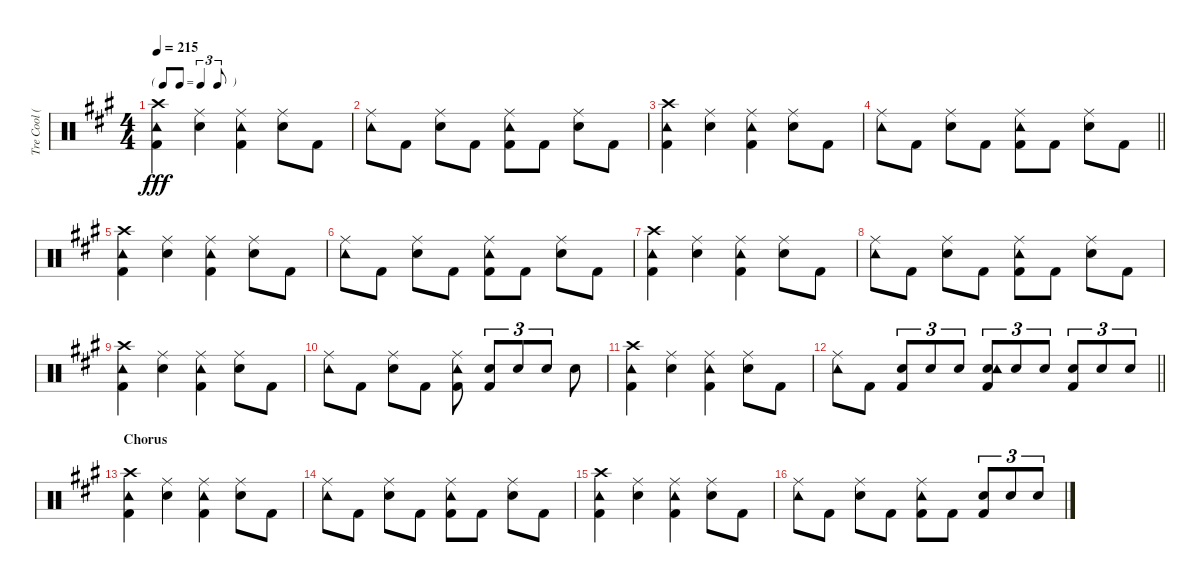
\track ("Tre Cool (Drums)" "Tre Cool (") {instrument percussion}
\staff {score}
\articulation defaults
\ts (4 4)
\tf triplet8th
\tempo 215
\clef neutral
\ks a
("Crash high (hit)" "Kick (hit) 2" "Tambourine (hit)").4{dy fff} ("Ride (middle)" "Electric Snare (hit)").4 ("Ride (middle)" "Kick (hit) 2" "Tambourine (hit)").4 ("Ride (middle)" "Electric Snare (hit)").8 "Kick (hit) 2".8 |
("Ride (middle)" "Tambourine (hit)").8 "Kick (hit) 2".8 ("Electric Snare (hit)" "Ride (middle)").8 "Kick (hit) 2".8 ("Kick (hit) 2" "Ride (middle)" "Tambourine (hit)").8 "Kick (hit) 2".8 ("Electric Snare (hit)" "Ride (middle)").8 "Kick (hit) 2".8 |
("Crash high (hit)" "Kick (hit) 2" "Tambourine (hit)").4 ("Ride (middle)" "Electric Snare (hit)").4 ("Ride (middle)" "Kick (hit) 2" "Tambourine (hit)").4 ("Ride (middle)" "Electric Snare (hit)").8 "Kick (hit) 2".8 |
\barLineRight lightlight
("Ride (middle)" "Tambourine (hit)").8 "Kick (hit) 2".8 ("Electric Snare (hit)" "Ride (middle)").8 "Kick (hit) 2".8 ("Kick (hit) 2" "Ride (middle)" "Tambourine (hit)").8 "Kick (hit) 2".8 ("Electric Snare (hit)" "Ride (middle)").8 "Kick (hit) 2".8 |
("Crash high (hit)" "Kick (hit) 2" "Tambourine (hit)").4 ("Ride (middle)" "Electric Snare (hit)").4 ("Ride (middle)" "Kick (hit) 2" "Tambourine (hit)").4 ("Ride (middle)" "Electric Snare (hit)").8 "Kick (hit) 2".8 |
("Ride (middle)" "Tambourine (hit)").8 "Kick (hit) 2".8 ("Electric Snare (hit)" "Ride (middle)").8 "Kick (hit) 2".8 ("Kick (hit) 2" "Ride (middle)" "Tambourine (hit)").8 "Kick (hit) 2".8 ("Electric Snare (hit)" "Ride (middle)").8 "Kick (hit) 2".8 |
("Crash high (hit)" "Kick (hit) 2" "Tambourine (hit)").4 ("Ride (middle)" "Electric Snare (hit)").4 ("Ride (middle)" "Kick (hit) 2" "Tambourine (hit)").4 ("Ride (middle)" "Electric Snare (hit)").8 "Kick (hit) 2".8 |
("Ride (middle)" "Tambourine (hit)").8 "Kick (hit) 2".8 ("Electric Snare (hit)" "Ride (middle)").8 "Kick (hit) 2".8 ("Kick (hit) 2" "Ride (middle)" "Tambourine (hit)").8 "Kick (hit) 2".8 ("Electric Snare (hit)" "Ride (middle)").8 "Kick (hit) 2".8 |
("Crash high (hit)" "Kick (hit) 2" "Tambourine (hit)").4 ("Ride (middle)" "Electric Snare (hit)").4 ("Ride (middle)" "Kick (hit) 2" "Tambourine (hit)").4 ("Ride (middle)" "Electric Snare (hit)").8 "Kick (hit) 2".8 |
("Ride (middle)" "Tambourine (hit)").8 "Kick (hit) 2".8 ("Ride (middle)" "Electric Snare (hit)").8 "Kick (hit) 2".8 ("Ride (middle)" "Kick (hit) 2" "Tambourine (hit)").8 ("Electric Snare (hit)" "Kick (hit) 2").8{tu (3 2)} "Electric Snare (hit)".8{tu (3 2)} "Electric Snare (hit)".8{tu (3 2)} "Electric Snare (hit)".8 |
("Crash high (hit)" "Kick (hit) 2" "Tambourine (hit)").4 ("Ride (middle)" "Electric Snare (hit)").4 ("Ride (middle)" "Kick (hit) 2" "Tambourine (hit)").4 ("Ride (middle)" "Electric Snare (hit)").8 "Kick (hit) 2".8 |
\barLineRight lightlight
("Ride (middle)" "Tambourine (hit)").8 "Kick (hit) 2".8 ("Electric Snare (hit)" "Kick (hit) 2").8{tu (3 2)} "Electric Snare (hit)".8{tu (3 2)} "Electric Snare (hit)".8{tu (3 2)} ("Electric Snare (hit)" "Kick (hit) 2" "Tambourine (hit)").8{tu (3 2)} "Electric Snare (hit)".8{tu (3 2)} "Electric Snare (hit)".8{tu (3 2)} ("Electric Snare (hit)" "Kick (hit) 2").8{tu (3 2)} "Electric Snare (hit)".8{tu (3 2)} "Electric Snare (hit)".8{tu (3 2)} |
\section ("" "Chorus")
("Crash high (hit)" "Kick (hit) 2" "Tambourine (hit)").4 ("Ride (middle)" "Electric Snare (hit)").4 ("Ride (middle)" "Kick (hit) 2" "Tambourine (hit)").4 ("Ride (middle)" "Electric Snare (hit)").8 "Kick (hit) 2".8 |
("Ride (middle)" "Tambourine (hit)").8 "Kick (hit) 2".8 ("Ride (middle)" "Electric Snare (hit)").8 "Kick (hit) 2".8 ("Ride (middle)" "Kick (hit) 2" "Tambourine (hit)").8 "Kick (hit) 2".8 ("Ride (middle)" "Electric Snare (hit)").8 "Kick (hit) 2".8 |
("Crash high (hit)" "Kick (hit) 2" "Tambourine (hit)").4 ("Ride (middle)" "Electric Snare (hit)").4 ("Ride (middle)" "Kick (hit) 2" "Tambourine (hit)").4 ("Ride (middle)" "Electric Snare (hit)").8 "Kick (hit) 2".8 |
("Ride (middle)" "Tambourine (hit)").8 "Kick (hit) 2".8 ("Ride (middle)" "Electric Snare (hit)").8 "Kick (hit) 2".8 ("Ride (middle)" "Kick (hit) 2" "Tambourine (hit)").8 "Kick (hit) 2".8 ("Electric Snare (hit)" "Kick (hit) 2").8{tu (3 2)} "Electric Snare (hit)".8{tu (3 2)} "Electric Snare (hit)".8{tu (3 2)}
